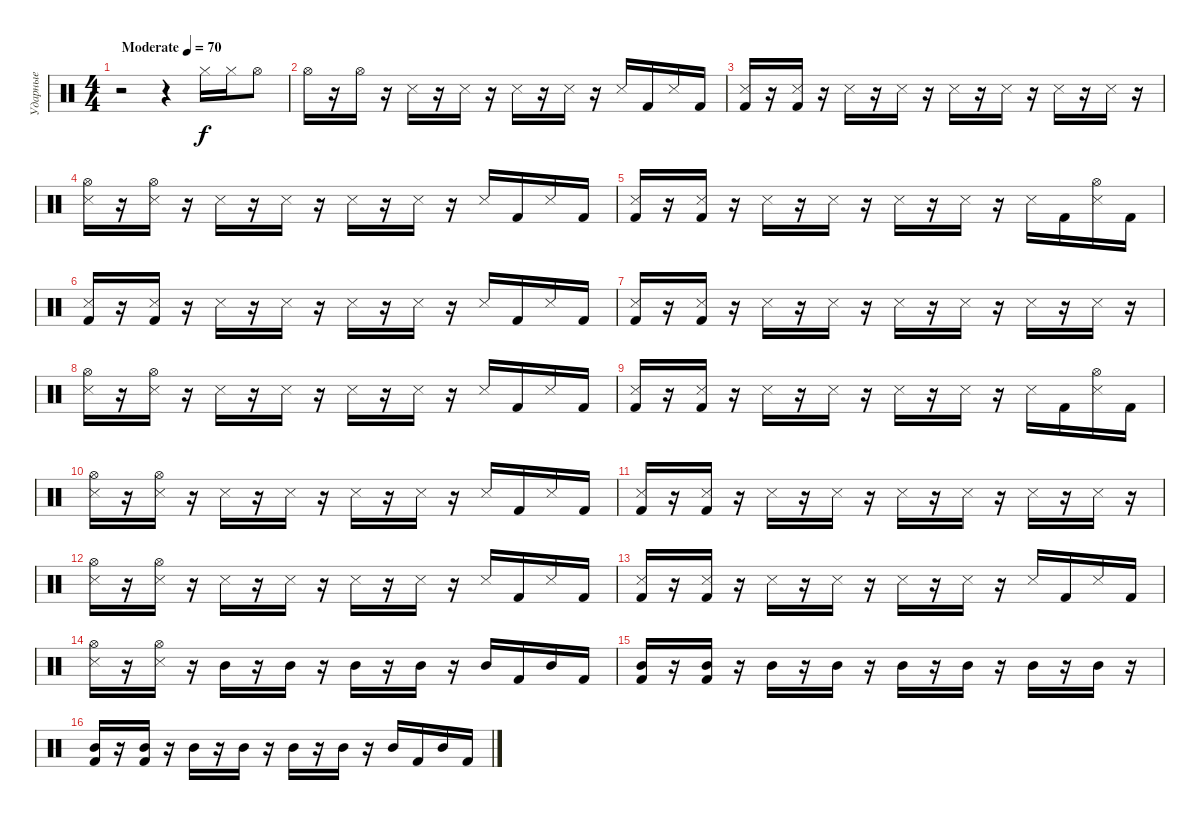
\track ("Ударные" "Ударные") {instrument percussion}
\staff {score}
\articulation defaults
\ts (4 4)
\tempo (70 "Moderate")
\clef neutral
\ks c
r.2{dy f} r.4 "Hi-Hat (closed)".16 "Hi-Hat (closed)".16 "Hi-Hat (open)".8 |
"Hi-Hat (open)".16 r.16 "Hi-Hat (open)".16 r.16 "Snare (side stick) 3".16 r.16 "Snare (side stick) 3".16 r.16 "Snare (side stick) 3".16 r.16 "Snare (side stick) 3".16 r.16 "Snare (side stick) 3".16 "Kick (hit) 2".16 "Snare (side stick) 3".16 "Kick (hit) 2".16 |
("Snare (side stick) 3" "Kick (hit) 2").16 r.16 ("Snare (side stick) 3" "Kick (hit) 2").16 r.16 "Snare (side stick) 3".16 r.16 "Snare (side stick) 3".16 r.16 "Snare (side stick) 3".16 r.16 "Snare (side stick) 3".16 r.16 "Snare (side stick) 3".16 r.16 "Snare (side stick) 3".16 r.16 |
("Snare (side stick) 3" "Hi-Hat (open)").16 r.16 ("Snare (side stick) 3" "Hi-Hat (open)").16 r.16 "Snare (side stick) 3".16 r.16 "Snare (side stick) 3".16 r.16 "Snare (side stick) 3".16 r.16 "Snare (side stick) 3".16 r.16 "Snare (side stick) 3".16 "Kick (hit) 2".16 "Snare (side stick) 3".16 "Kick (hit) 2".16 |
("Snare (side stick) 3" "Kick (hit) 2").16 r.16 ("Snare (side stick) 3" "Kick (hit) 2").16 r.16 "Snare (side stick) 3".16 r.16 "Snare (side stick) 3".16 r.16 "Snare (side stick) 3".16 r.16 "Snare (side stick) 3".16 r.16 "Snare (side stick) 3".16 "Kick (hit) 2".16 ("Snare (side stick) 3" "Hi-Hat (open)").16 "Kick (hit) 2".16 |
("Snare (side stick) 3" "Kick (hit) 2").16 r.16 ("Snare (side stick) 3" "Kick (hit) 2").16 r.16 "Snare (side stick) 3".16 r.16 "Snare (side stick) 3".16 r.16 "Snare (side stick) 3".16 r.16 "Snare (side stick) 3".16 r.16 "Snare (side stick) 3".16 "Kick (hit) 2".16 "Snare (side stick) 3".16 "Kick (hit) 2".16 |
("Snare (side stick) 3" "Kick (hit) 2").16 r.16 ("Snare (side stick) 3" "Kick (hit) 2").16 r.16 "Snare (side stick) 3".16 r.16 "Snare (side stick) 3".16 r.16 "Snare (side stick) 3".16 r.16 "Snare (side stick) 3".16 r.16 "Snare (side stick) 3".16 r.16 "Snare (side stick) 3".16 r.16 |
("Snare (side stick) 3" "Hi-Hat (open)").16 r.16 ("Snare (side stick) 3" "Hi-Hat (open)").16 r.16 "Snare (side stick) 3".16 r.16 "Snare (side stick) 3".16 r.16 "Snare (side stick) 3".16 r.16 "Snare (side stick) 3".16 r.16 "Snare (side stick) 3".16 "Kick (hit) 2".16 "Snare (side stick) 3".16 "Kick (hit) 2".16 |
("Snare (side stick) 3" "Kick (hit) 2").16 r.16 ("Snare (side stick) 3" "Kick (hit) 2").16 r.16 "Snare (side stick) 3".16 r.16 "Snare (side stick) 3".16 r.16 "Snare (side stick) 3".16 r.16 "Snare (side stick) 3".16 r.16 "Snare (side stick) 3".16 "Kick (hit) 2".16 ("Snare (side stick) 3" "Hi-Hat (open)").16 "Kick (hit) 2".16 |
("Snare (side stick) 3" "Hi-Hat (open)").16 r.16 ("Snare (side stick) 3" "Hi-Hat (open)").16 r.16 "Snare (side stick) 3".16 r.16 "Snare (side stick) 3".16 r.16 "Snare (side stick) 3".16 r.16 "Snare (side stick) 3".16 r.16 "Snare (side stick) 3".16 "Kick (hit) 2".16 "Snare (side stick) 3".16 "Kick (hit) 2".16 |
("Snare (side stick) 3" "Kick (hit) 2").16 r.16 ("Snare (side stick) 3" "Kick (hit) 2").16 r.16 "Snare (side stick) 3".16 r.16 "Snare (side stick) 3".16 r.16 "Snare (side stick) 3".16 r.16 "Snare (side stick) 3".16 r.16 "Snare (side stick) 3".16 r.16 "Snare (side stick) 3".16 r.16 |
("Snare (side stick) 3" "Hi-Hat (open)").16 r.16 ("Snare (side stick) 3" "Hi-Hat (open)").16 r.16 "Snare (side stick) 3".16 r.16 "Snare (side stick) 3".16 r.16 "Snare (side stick) 3".16 r.16 "Snare (side stick) 3".16 r.16 "Snare (side stick) 3".16 "Kick (hit) 2".16 "Snare (side stick) 3".16 "Kick (hit) 2".16 |
("Snare (side stick) 3" "Kick (hit) 2").16 r.16 ("Snare (side stick) 3" "Kick (hit) 2").16 r.16 "Snare (side stick) 3".16 r.16 "Snare (side stick) 3".16 r.16 "Snare (side stick) 3".16 r.16 "Snare (side stick) 3".16 r.16 "Snare (side stick) 3".16 "Kick (hit) 2".16 "Snare (side stick) 3".16 "Kick (hit) 2".16 |
("Snare (side stick) 3" "Hi-Hat (open)").16 r.16 ("Snare (side stick) 3" "Hi-Hat (open)").16 r.16 "Mid Tom (hit)".16 r.16 "Mid Tom (hit)".16 r.16 "Mid Tom (hit)".16 r.16 "Mid Tom (hit)".16 r.16 "Mid Tom (hit)".16 "Kick (hit) 2".16 "Mid Tom (hit)".16 "Kick (hit) 2".16 |
("Mid Tom (hit)" "Kick (hit) 2").16 r.16 ("Mid Tom (hit)" "Kick (hit) 2").16 r.16 "Mid Tom (hit)".16 r.16 "Mid Tom (hit)".16 r.16 "Mid Tom (hit)".16 r.16 "Mid Tom (hit)".16 r.16 "Mid Tom (hit)".16 r.16 "Mid Tom (hit)".16 r.16 |
("Mid Tom (hit)" "Kick (hit) 2").16 r.16 ("Mid Tom (hit)" "Kick (hit) 2").16 r.16 "Mid Tom (hit)".16 r.16 "Mid Tom (hit)".16 r.16 "Mid Tom (hit)".16 r.16 "Mid Tom (hit)".16 r.16 "Mid Tom (hit)".16 "Kick (hit) 2".16 "Mid Tom (hit)".16 "Kick (hit) 2".16
